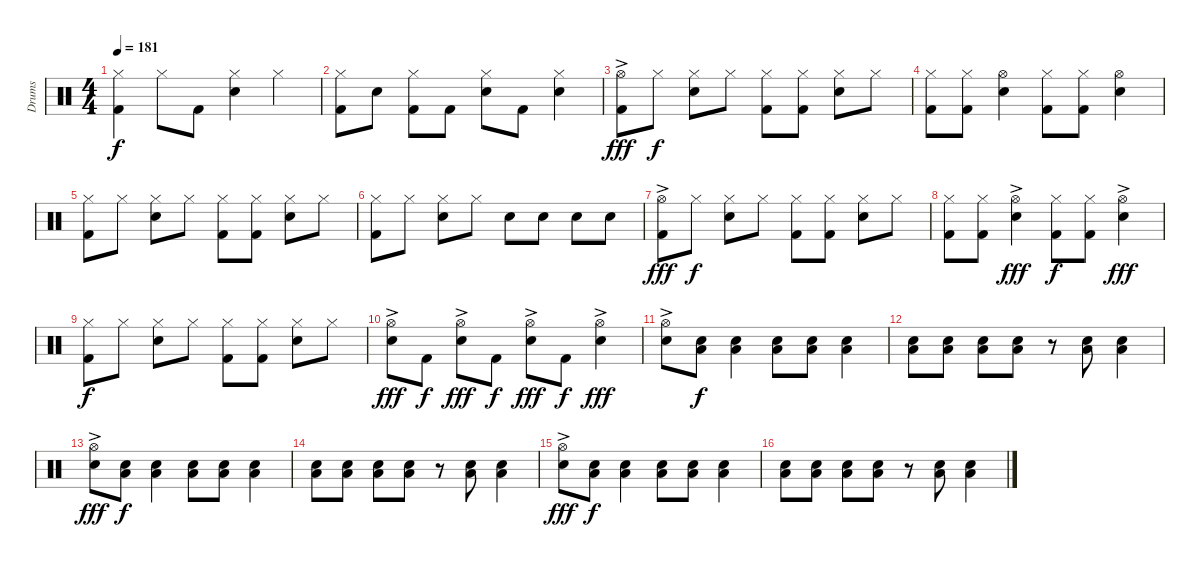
\track ("Drums" "Drums") {instrument percussion}
\staff {score}
\articulation defaults
\ts (4 4)
\tempo 181
\clef neutral
\ks c
("Hi-Hat (closed)" "Kick (hit) 2").4{dy f} "Hi-Hat (closed)".8 "Kick (hit) 2".8 ("Hi-Hat (closed)" "Snare (hit) 2").4 "Hi-Hat (closed)".4 |
("Hi-Hat (closed)" "Kick (hit) 2").8 "Snare (hit) 2".8 ("Hi-Hat (closed)" "Kick (hit) 2").8 "Kick (hit) 2".8 ("Hi-Hat (closed)" "Snare (hit) 2").8 "Kick (hit) 2".8 ("Hi-Hat (closed)" "Snare (hit) 2").4 |
("Hi-Hat (open)"{ac} "Kick (hit) 2").8{dy fff} "Hi-Hat (closed)".8{dy f} ("Hi-Hat (closed)" "Snare (hit) 2").8 "Hi-Hat (closed)".8 ("Hi-Hat (closed)" "Kick (hit) 2").8 ("Hi-Hat (closed)" "Kick (hit) 2").8 ("Hi-Hat (closed)" "Snare (hit) 2").8 "Hi-Hat (closed)".8 |
("Hi-Hat (closed)" "Kick (hit) 2").8 ("Hi-Hat (closed)" "Kick (hit) 2").8 ("Hi-Hat (open)" "Snare (hit) 2").4 ("Hi-Hat (closed)" "Kick (hit) 2").8 ("Hi-Hat (closed)" "Kick (hit) 2").8 ("Hi-Hat (open)" "Snare (hit) 2").4 |
("Hi-Hat (closed)" "Kick (hit) 2").8 "Hi-Hat (closed)".8 ("Hi-Hat (closed)" "Snare (hit) 2").8 "Hi-Hat (closed)".8 ("Hi-Hat (closed)" "Kick (hit) 2").8 ("Hi-Hat (closed)" "Kick (hit) 2").8 ("Hi-Hat (closed)" "Snare (hit) 2").8 "Hi-Hat (closed)".8 |
("Hi-Hat (closed)" "Kick (hit) 2").8 "Hi-Hat (closed)".8 ("Hi-Hat (closed)" "Snare (hit) 2").8 "Hi-Hat (closed)".8 "Snare (hit) 2".8 "Snare (hit) 2".8 "Snare (hit) 2".8 "Snare (hit) 2".8 |
("Hi-Hat (open)"{ac} "Kick (hit) 2").8{dy fff} "Hi-Hat (closed)".8{dy f} ("Hi-Hat (closed)" "Snare (hit) 2").8 "Hi-Hat (closed)".8 ("Hi-Hat (closed)" "Kick (hit) 2").8 ("Hi-Hat (closed)" "Kick (hit) 2").8 ("Hi-Hat (closed)" "Snare (hit) 2").8 "Hi-Hat (closed)".8 |
("Hi-Hat (closed)" "Kick (hit) 2").8 ("Hi-Hat (closed)" "Kick (hit) 2").8 ("Hi-Hat (open)"{ac} "Snare (hit) 2").4{dy fff} ("Hi-Hat (closed)" "Kick (hit) 2").8{dy f} ("Hi-Hat (closed)" "Kick (hit) 2").8 ("Hi-Hat (open)"{ac} "Snare (hit) 2").4{dy fff} |
("Hi-Hat (closed)" "Kick (hit) 2").8{dy f} "Hi-Hat (closed)".8 ("Hi-Hat (closed)" "Snare (hit) 2").8 "Hi-Hat (closed)".8 ("Hi-Hat (closed)" "Kick (hit) 2").8 ("Hi-Hat (closed)" "Kick (hit) 2").8 ("Hi-Hat (closed)" "Snare (hit) 2").8 "Hi-Hat (closed)".8 |
("Hi-Hat (open)"{ac} "Snare (hit) 2").8{dy fff} "Kick (hit) 2".8{dy f} ("Hi-Hat (open)"{ac} "Snare (hit) 2").8{dy fff} "Kick (hit) 2".8{dy f} ("Hi-Hat (open)"{ac} "Snare (hit) 2").8{dy fff} "Kick (hit) 2".8{dy f} ("Hi-Hat (open)"{ac} "Snare (hit) 2").4{dy fff} |
("Hi-Hat (open)"{ac} "Snare (hit) 2").8 ("Snare (hit) 2" "Low Tom (hit)").8{dy f} ("Snare (hit) 2" "Low Tom (hit)").4 ("Snare (hit) 2" "Low Tom (hit)").8 ("Snare (hit) 2" "Low Tom (hit)").8 ("Snare (hit) 2" "Low Tom (hit)").4 |
("Snare (hit) 2" "Low Tom (hit)").8 ("Snare (hit) 2" "Low Tom (hit)").8 ("Snare (hit) 2" "Low Tom (hit)").8 ("Snare (hit) 2" "Low Tom (hit)").8 r.8 ("Snare (hit) 2" "Low Tom (hit)").8 ("Snare (hit) 2" "Low Tom (hit)").4 |
("Hi-Hat (open)"{ac} "Snare (hit) 2").8{dy fff} ("Snare (hit) 2" "Low Tom (hit)").8{dy f} ("Snare (hit) 2" "Low Tom (hit)").4 ("Snare (hit) 2" "Low Tom (hit)").8 ("Snare (hit) 2" "Low Tom (hit)").8 ("Snare (hit) 2" "Low Tom (hit)").4 |
("Snare (hit) 2" "Low Tom (hit)").8 ("Snare (hit) 2" "Low Tom (hit)").8 ("Snare (hit) 2" "Low Tom (hit)").8 ("Snare (hit) 2" "Low Tom (hit)").8 r.8 ("Snare (hit) 2" "Low Tom (hit)").8 ("Snare (hit) 2" "Low Tom (hit)").4 |
("Hi-Hat (open)"{ac} "Snare (hit) 2").8{dy fff} ("Snare (hit) 2" "Low Tom (hit)").8{dy f} ("Snare (hit) 2" "Low Tom (hit)").4 ("Snare (hit) 2" "Low Tom (hit)").8 ("Snare (hit) 2" "Low Tom (hit)").8 ("Snare (hit) 2" "Low Tom (hit)").4 |
("Snare (hit) 2" "Low Tom (hit)").8 ("Snare (hit) 2" "Low Tom (hit)").8 ("Snare (hit) 2" "Low Tom (hit)").8 ("Snare (hit) 2" "Low Tom (hit)").8 r.8 ("Snare (hit) 2" "Low Tom (hit)").8 ("Snare (hit) 2" "Low Tom (hit)").4
